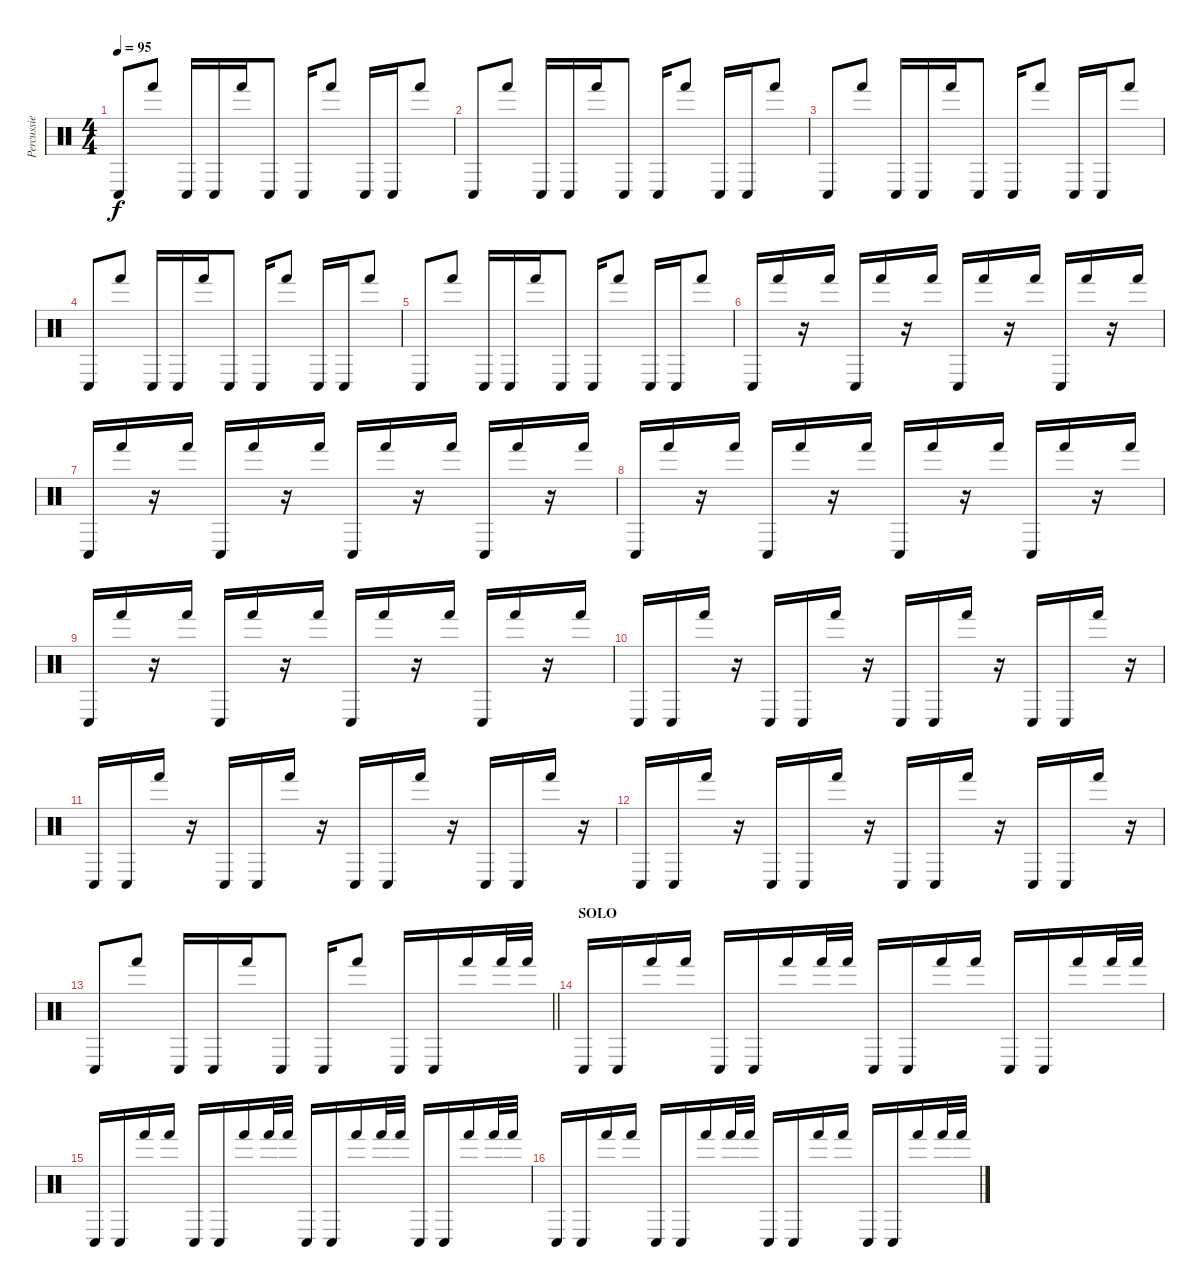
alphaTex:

\track ("Percussie" "Percussie") {instrument percussion}
\staff {score}
\articulation defaults
\ts (4 4)
\tempo 95
\clef neutral
\ks c "Conga low (hit)".8{dy f} "Hand (hit)".8 "Conga low (hit)".16 "Conga low (hit)".16 "Hand (hit)".16 "Conga low (hit)".8 "Conga low (hit)".16 "Hand (hit)".8 "Conga low (hit)".16 "Conga low (hit)".16 "Hand (hit)".8
|
"Conga low (hit)".8 "Hand (hit)".8 "Conga low (hit)".16 "Conga low (hit)".16 "Hand (hit)".16 "Conga low (hit)".8 "Conga low (hit)".16 "Hand (hit)".8 "Conga low (hit)".16 "Conga low (hit)".16 "Hand (hit)".8 |
"Conga low (hit)".8 "Hand (hit)".8 "Conga low (hit)".16 "Conga low (hit)".16 "Hand (hit)".16 "Conga low (hit)".8 "Conga low (hit)".16 "Hand (hit)".8 "Conga low (hit)".16 "Conga low (hit)".16 "Hand (hit)".8 |
"Conga low (hit)".8 "Hand (hit)".8 "Conga low (hit)".16 "Conga low (hit)".16 "Hand (hit)".16 "Conga low (hit)".8 "Conga low (hit)".16 "Hand (hit)".8 "Conga low (hit)".16 "Conga low (hit)".16 "Hand (hit)".8 |
"Conga low (hit)".8 "Hand (hit)".8 "Conga low (hit)".16 "Conga low (hit)".16 "Hand (hit)".16 "Conga low (hit)".8 "Conga low (hit)".16 "Hand (hit)".8 "Conga low (hit)".16 "Conga low (hit)".16 "Hand (hit)".8 |
"Conga low (hit)".16 "Hand (hit)".16 r.16 "Hand (hit)".16 "Conga low (hit)".16 "Hand (hit)".16 r.16 "Hand (hit)".16 "Conga low (hit)".16 "Hand (hit)".16 r.16 "Hand (hit)".16 "Conga low (hit)".16 "Hand (hit)".16 r.16 "Hand (hit)".16 |
"Conga low (hit)".16 "Hand (hit)".16 r.16 "Hand (hit)".16 "Conga low (hit)".16 "Hand (hit)".16 r.16 "Hand (hit)".16 "Conga low (hit)".16 "Hand (hit)".16 r.16 "Hand (hit)".16 "Conga low (hit)".16 "Hand (hit)".16 r.16 "Hand (hit)".16 |
"Conga low (hit)".16 "Hand (hit)".16 r.16 "Hand (hit)".16 "Conga low (hit)".16 "Hand (hit)".16 r.16 "Hand (hit)".16 "Conga low (hit)".16 "Hand (hit)".16 r.16 "Hand (hit)".16 "Conga low (hit)".16 "Hand (hit)".16 r.16 "Hand (hit)".16 |
"Conga low (hit)".16 "Hand (hit)".16 r.16 "Hand (hit)".16 "Conga low (hit)".16 "Hand (hit)".16 r.16 "Hand (hit)".16 "Conga low (hit)".16 "Hand (hit)".16 r.16 "Hand (hit)".16 "Conga low (hit)".16 "Hand (hit)".16 r.16 "Hand (hit)".16 |
"Conga low (hit)".16 "Conga low (hit)".16 "Hand (hit)".16 r.16 "Conga low (hit)".16 "Conga low (hit)".16 "Hand (hit)".16 r.16 "Conga low (hit)".16 "Conga low (hit)".16 "Hand (hit)".16 r.16 "Conga low (hit)".16 "Conga low (hit)".16 "Hand (hit)".16 r.16 |
"Conga low (hit)".16 "Conga low (hit)".16 "Hand (hit)".16 r.16 "Conga low (hit)".16 "Conga low (hit)".16 "Hand (hit)".16 r.16 "Conga low (hit)".16 "Conga low (hit)".16 "Hand (hit)".16 r.16 "Conga low (hit)".16 "Conga low (hit)".16 "Hand (hit)".16 r.16 |
"Conga low (hit)".16 "Conga low (hit)".16 "Hand (hit)".16 r.16 "Conga low (hit)".16 "Conga low (hit)".16 "Hand (hit)".16 r.16 "Conga low (hit)".16 "Conga low (hit)".16 "Hand (hit)".16 r.16 "Conga low (hit)".16 "Conga low (hit)".16 "Hand (hit)".16 r.16 |
\barLineRight lightlight "Conga low (hit)".8 "Hand (hit)".8 "Conga low (hit)".16 "Conga low (hit)".16 "Hand (hit)".16 "Conga low (hit)".8 "Conga low (hit)".16 "Hand (hit)".8 "Conga low (hit)".16 "Conga low (hit)".16 "Hand (hit)".16 "Hand (hit)".32 "Hand (hit)".32
|
\section ("" "SOLO")
"Conga low (hit)".16 "Conga low (hit)".16 "Hand (hit)".16 "Hand (hit)".16 "Conga low (hit)".16 "Conga low (hit)".16 "Hand (hit)".16 "Hand (hit)".32 "Hand (hit)".32 "Conga low (hit)".16 "Conga low (hit)".16 "Hand (hit)".16 "Hand (hit)".16 "Conga low (hit)".16 "Conga low (hit)".16 "Hand (hit)".16 "Hand (hit)".32 "Hand (hit)".32 |
"Conga low (hit)".16 "Conga low (hit)".16 "Hand (hit)".16 "Hand (hit)".16 "Conga low (hit)".16 "Conga low (hit)".16 "Hand (hit)".16 "Hand (hit)".32 "Hand (hit)".32 "Conga low (hit)".16 "Conga low (hit)".16 "Hand (hit)".16 "Hand (hit)".32 "Hand (hit)".32 "Conga low (hit)".16 "Conga low (hit)".16 "Hand (hit)".16 "Hand (hit)".32 "Hand (hit)".32 |
"Conga low (hit)".16 "Conga low (hit)".16 "Hand (hit)".16 "Hand (hit)".16 "Conga low (hit)".16 "Conga low (hit)".16 "Hand (hit)".16 "Hand (hit)".32 "Hand (hit)".32 "Conga low (hit)".16 "Conga low (hit)".16 "Hand (hit)".16 "Hand (hit)".16 "Conga low (hit)".16 "Conga low (hit)".16 "Hand (hit)".16 "Hand (hit)".32 "Hand (hit)".32
